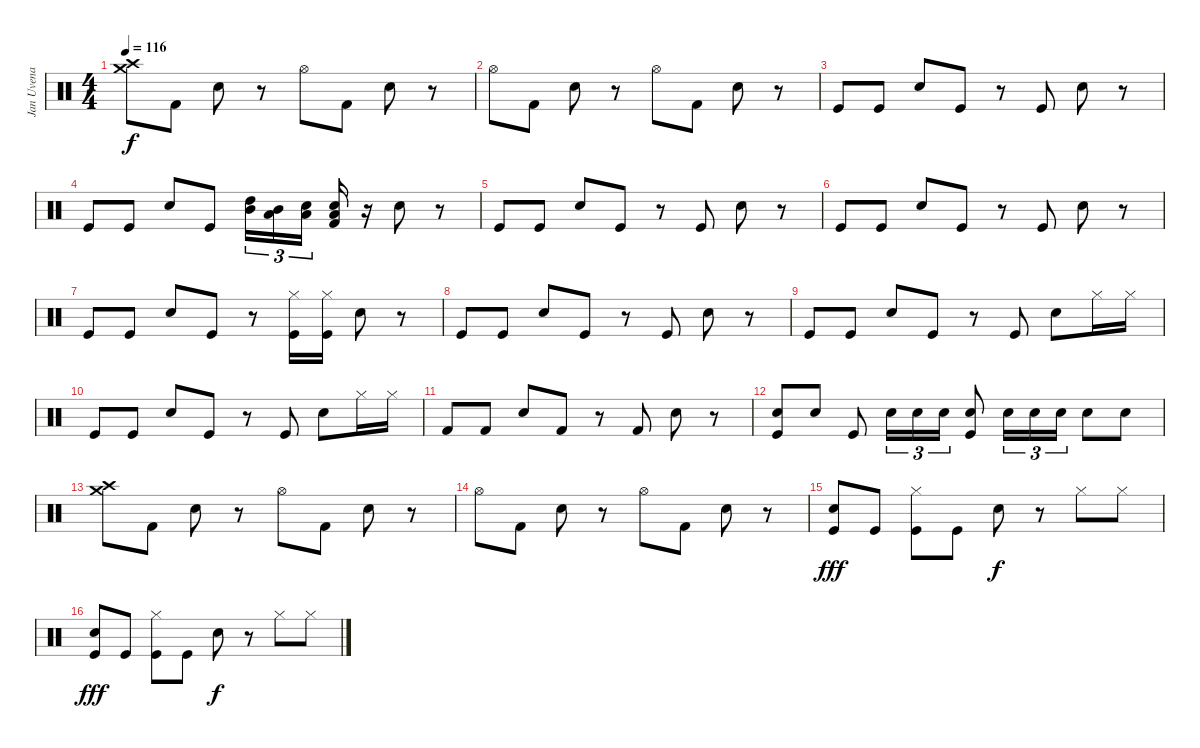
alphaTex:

\track ("Jan Uvena" "Jan Uvena") {instrument percussion}
\staff {score}
\articulation defaults
\ts (4 4)
\tempo 116
\clef neutral
\ks c
("Crash medium (hit)" "Crash high (hit)").8{dy f} "Kick (hit) 2".8 "Snare (hit) 2".8 r.8 "Hi-Hat (open)".8 "Kick (hit) 2".8 "Snare (hit) 2".8 r.8 |
"Hi-Hat (open)".8 "Kick (hit) 2".8 "Snare (hit) 2".8 r.8 "Hi-Hat (open)".8 "Kick (hit) 2".8 "Snare (hit) 2".8 r.8 |
"Kick (hit)".8 "Kick (hit)".8 "Snare (hit) 2".8 "Kick (hit)".8 r.8 "Kick (hit)".8 "Snare (hit) 2".8 r.8 |
"Kick (hit)".8 "Kick (hit)".8 "Snare (hit) 2".8 "Kick (hit)".8 ("High Tom (hit)" "Mid Tom (hit)").16{tu (3 2)} ("Mid Tom (hit)" "Low Tom (hit)").16{tu (3 2)} ("Low Tom (hit)" "Snare (hit) 2").16{tu (3 2)} ("Low Tom (hit)" "Snare (hit) 2" "Kick (hit) 2").16 r.16 "Snare (hit) 2".8 r.8 |
"Kick (hit)".8 "Kick (hit)".8 "Snare (hit) 2".8 "Kick (hit)".8 r.8 "Kick (hit)".8 "Snare (hit) 2".8 r.8 |
"Kick (hit)".8 "Kick (hit)".8 "Snare (hit) 2".8 "Kick (hit)".8 r.8 "Kick (hit)".8 "Snare (hit) 2".8 r.8 |
"Kick (hit)".8 "Kick (hit)".8 "Snare (hit) 2".8 "Kick (hit)".8 r.8 ("Hi-Hat (closed)" "Kick (hit)").16 ("Hi-Hat (closed)" "Kick (hit)").16 "Snare (hit) 2".8 r.8 |
"Kick (hit)".8 "Kick (hit)".8 "Snare (hit) 2".8 "Kick (hit)".8 r.8 "Kick (hit)".8 "Snare (hit) 2".8 r.8 |
"Kick (hit)".8 "Kick (hit)".8 "Snare (hit) 2".8 "Kick (hit)".8 r.8 "Kick (hit)".8 "Snare (hit) 2".8 "Hi-Hat (closed)".16 "Hi-Hat (closed)".16 |
"Kick (hit)".8 "Kick (hit)".8 "Snare (hit) 2".8 "Kick (hit)".8 r.8 "Kick (hit)".8 "Snare (hit) 2".8 "Hi-Hat (closed)".16 "Hi-Hat (closed)".16 |
"Kick (hit) 2".8 "Kick (hit) 2".8 "Snare (hit) 2".8 "Kick (hit) 2".8 r.8 "Kick (hit) 2".8 "Snare (hit) 2".8 r.8 |
("Snare (hit) 2" "Kick (hit)").8 "Snare (hit) 2".8 "Kick (hit)".8 "Snare (hit) 2".16{tu (3 2)} "Snare (hit) 2".16{tu (3 2)} "Snare (hit) 2".16{tu (3 2)} ("Snare (hit) 2" "Kick (hit)").8 "Snare (hit) 2".16{tu (3 2)} "Snare (hit) 2".16{tu (3 2)} "Snare (hit) 2".16{tu (3 2)} "Snare (hit) 2".8 "Snare (hit) 2".8 |
("Crash medium (hit)" "Crash high (hit)").8 "Kick (hit) 2".8 "Snare (hit) 2".8 r.8 "Hi-Hat (open)".8 "Kick (hit) 2".8 "Snare (hit) 2".8 r.8 |
"Hi-Hat (open)".8 "Kick (hit) 2".8 "Snare (hit) 2".8 r.8 "Hi-Hat (open)".8 "Kick (hit) 2".8 "Snare (hit) 2".8 r.8 |
("Snare (hit) 2" "Kick (hit)").8{dy fff} "Kick (hit)".8 ("Hi-Hat (closed)" "Kick (hit)").8 "Kick (hit)".8 "Snare (hit) 2".8{dy f} r.8 "Hi-Hat (closed)".8 "Hi-Hat (closed)".8 |
("Snare (hit) 2" "Kick (hit)").8{dy fff} "Kick (hit)".8 ("Hi-Hat (closed)" "Kick (hit)").8 "Kick (hit)".8 "Snare (hit) 2".8{dy f} r.8 "Hi-Hat (closed)".8 "Hi-Hat (closed)".8
